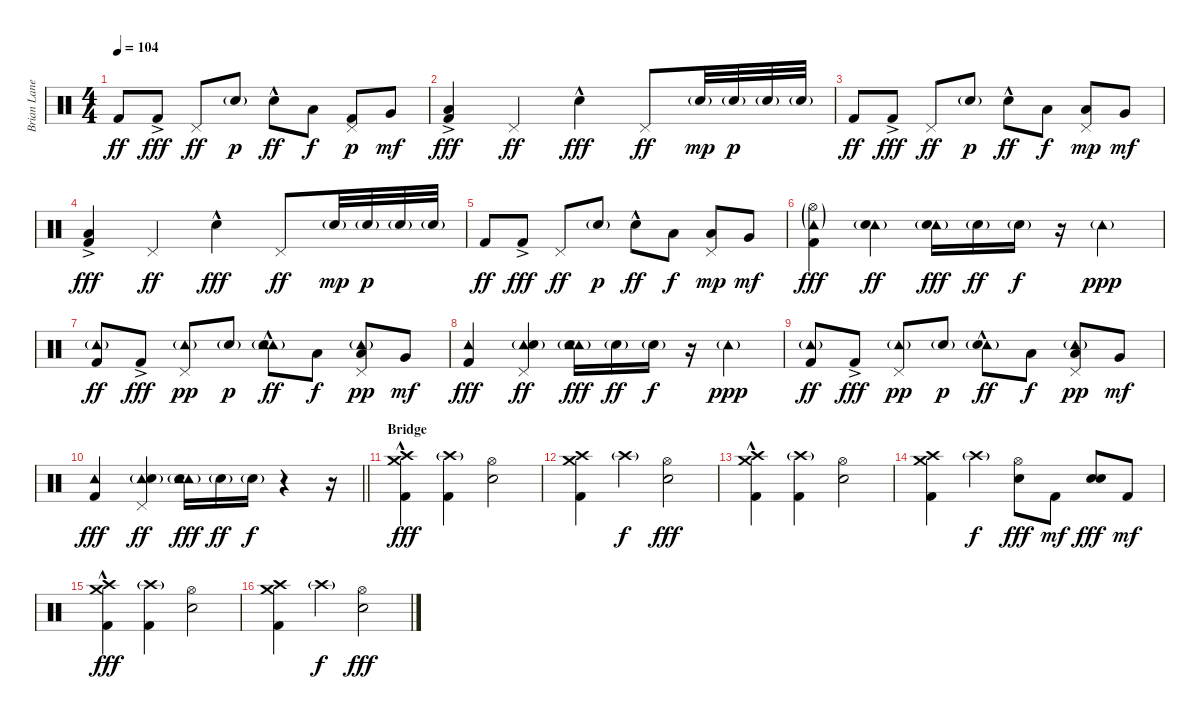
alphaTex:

\track ("Brian Lane - Drums" "Brian Lane") {instrument percussion}
\staff {score}
\articulation defaults
\ts (4 4)
\tempo 104
\clef neutral
\ks c "Kick (hit) 2".8{dy ff} "Kick (hit) 2"{ac}.8{dy fff} "Pedal Hi-Hat (hit)".8{dy ff} "Snare (hit) 2"{g}.8{dy p} "Snare (hit) 2"{hac}.8{dy ff} "Low Tom (hit)".8{dy f}
("Pedal Hi-Hat (hit)" "Kick (hit) 2").8{dy p} "Very Low Tom (hit)".8{dy mf} |
("Low Floor Tom (hit)" "Kick (hit) 2"{ac}).4{dy fff} "Pedal Hi-Hat (hit)".4{dy ff} "Snare (hit) 2"{hac}.4{dy fff} "Pedal Hi-Hat (hit)".8{dy ff} "Snare (hit) 2"{g}.32{dy mp} "Snare (hit) 2"{g}.32{dy p} "Snare (hit) 2"{g}.32 "Snare (hit) 2"{g}.32 |
"Kick (hit) 2".8{dy ff} "Kick (hit) 2"{ac}.8{dy fff} "Pedal Hi-Hat (hit)".8{dy ff} "Snare (hit) 2"{g}.8{dy p} "Snare (hit) 2"{hac}.8{dy ff} "Low Tom (hit)".8{dy f} ("Pedal Hi-Hat (hit)" "Low Tom (hit)").8{dy mp} "Very Low Tom (hit)".8{dy mf} |
("Low Floor Tom (hit)" "Kick (hit) 2"{ac}).4{dy fff} "Pedal Hi-Hat (hit)".4{dy ff} "Snare (hit) 2"{hac}.4{dy fff} "Pedal Hi-Hat (hit)".8{dy ff} "Snare (hit) 2"{g}.32{dy mp} "Snare (hit) 2"{g}.32{dy p} "Snare (hit) 2"{g}.32 "Snare (hit) 2"{g}.32 |
"Kick (hit) 2".8{dy ff} "Kick (hit) 2"{ac}.8{dy fff} "Pedal Hi-Hat (hit)".8{dy ff} "Snare (hit) 2"{g}.8{dy p} "Snare (hit) 2"{hac}.8{dy ff} "Low Tom (hit)".8{dy f} ("Pedal Hi-Hat (hit)" "Low Tom (hit)").8{dy mp} "Very Low Tom (hit)".8{dy mf} |
("Tambourine (hit)"{g} "Hi-Hat (open)"{g} "Kick (hit) 2").4{dy fff} ("Tambourine (hit)"{g} "Snare (hit) 2").4{dy ff} ("Tambourine (hit)"{g} "Snare (hit) 2").16{dy fff} "Snare (hit) 2"{g}.16{dy ff} "Snare (hit) 2"{g}.16{dy f} r.16 "Tambourine (hit)"{g}.4{dy ppp} |
("Tambourine (hit)"{g} "Kick (hit) 2").8{dy ff} "Kick (hit) 2"{ac}.8{dy fff} ("Tambourine (hit)"{g} "Pedal Hi-Hat (hit)").8{dy pp} "Snare (hit) 2"{g}.8{dy p} ("Tambourine (hit)"{g} "Tambourine (hit)"{g} "Snare (hit) 2"{hac}).8{dy ff} "Low Tom (hit)".8{dy f} ("Tambourine (hit)"{g} "Pedal Hi-Hat (hit)" "Low Tom (hit)").8{dy pp} "Very Low Tom (hit)".8{dy mf} |
("Tambourine (hit)" "Kick (hit) 2").4{dy fff} ("Tambourine (hit)"{g} "Pedal Hi-Hat (hit)" "Snare (hit) 2").4{dy ff} ("Tambourine (hit)"{g} "Tambourine (hit)" "Snare (hit) 2").16{dy fff} "Snare (hit) 2"{g}.16{dy ff} "Snare (hit) 2"{g}.16{dy f} r.16 "Tambourine (hit)"{g}.4{dy ppp} |
("Tambourine (hit)"{g} "Kick (hit) 2").8{dy ff} "Kick (hit) 2"{ac}.8{dy fff} ("Tambourine (hit)"{g} "Pedal Hi-Hat (hit)").8{dy pp} "Snare (hit) 2"{g}.8{dy p} ("Tambourine (hit)"{g} "Snare (hit) 2"{hac}).8{dy ff} "Low Tom (hit)".8{dy f} ("Tambourine (hit)"{g} "Pedal Hi-Hat (hit)" "Low Tom (hit)").8{dy pp} "Very Low Tom (hit)".8{dy mf} |
\barLineRight lightlight
("Tambourine (hit)" "Kick (hit) 2").4{dy fff} ("Tambourine (hit)"{g} "Pedal Hi-Hat (hit)" "Snare (hit) 2").4{dy ff} ("Tambourine (hit)"{g} "Tambourine (hit)" "Snare (hit) 2").16{dy fff} "Snare (hit) 2"{g}.16{dy ff} "Snare (hit) 2"{g}.16{dy f} r.4 r.16 |
\section ("" "Bridge")
("Crash high (hit)" "Crash medium (hit)" "Kick (hit) 2"{hac}).4{dy fff} ("Crash high (hit)"{g} "Kick (hit) 2").4 ("Hi-Hat (open)" "Snare (hit) 2").2 |
("Crash medium (hit)" "Crash high (hit)" "Kick (hit) 2").4 "Crash high (hit)"{g}.4{dy f} ("Hi-Hat (open)" "Snare (hit) 2").2{dy fff} |
("Crash high (hit)" "Crash medium (hit)" "Kick (hit) 2"{hac}).4 ("Crash high (hit)"{g} "Kick (hit) 2").4 ("Hi-Hat (open)" "Snare (hit) 2").2 |
("Crash medium (hit)" "Crash high (hit)" "Kick (hit) 2").4 "Crash high (hit)"{g}.4{dy f} ("Hi-Hat (open)" "Snare (hit) 2").8{dy fff} "Kick (hit) 2".8{dy mf} ("Snare (hit) 2" "Snare (hit) 2").8{bd 60 dy fff} "Kick (hit) 2".8{dy mf} |
("Crash high (hit)" "Crash medium (hit)" "Kick (hit) 2"{hac}).4{dy fff} ("Crash high (hit)"{g} "Kick (hit) 2").4 ("Hi-Hat (open)" "Snare (hit) 2").2 |
("Crash medium (hit)" "Crash high (hit)" "Kick (hit) 2").4 "Crash high (hit)"{g}.4{dy f} ("Hi-Hat (open)" "Snare (hit) 2").2{dy fff}
